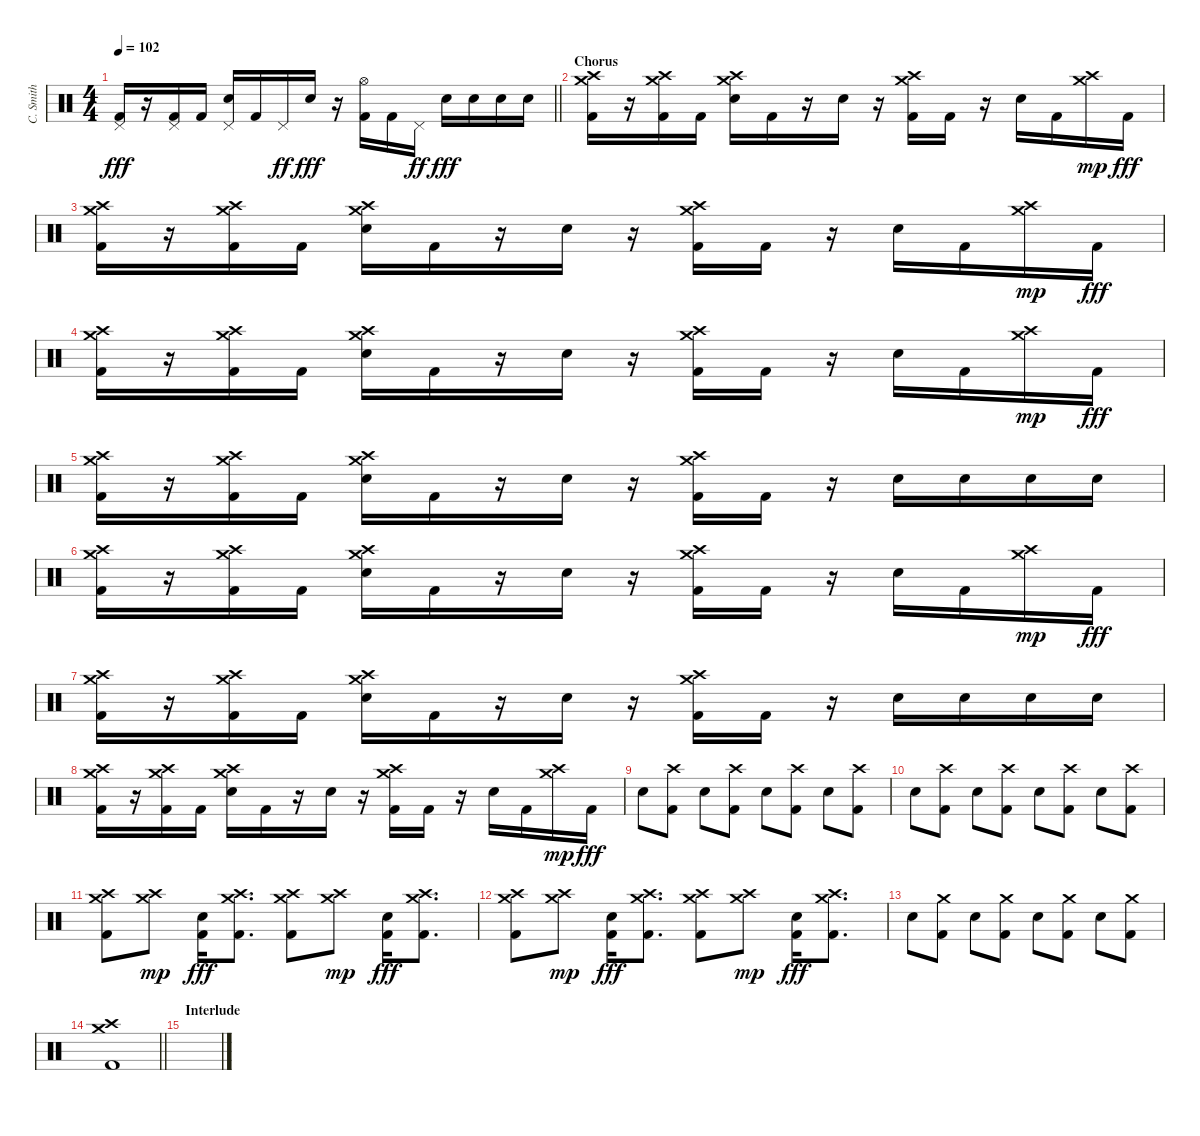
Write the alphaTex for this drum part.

\track ("C. Smith" "C. Smith") {instrument percussion}
\staff {score}
\articulation defaults
\ts (4 4)
\tempo 102
\clef neutral
\barLineRight lightlight
\ks c
("Pedal Hi-Hat (hit)" "Kick (hit) 2").16{dy fff} r.16 ("Pedal Hi-Hat (hit)" "Kick (hit) 2").16 "Kick (hit) 2".16 ("Pedal Hi-Hat (hit)" "Snare (hit) 2").16 "Kick (hit) 2".16 "Pedal Hi-Hat (hit)".16{dy ff} "Snare (hit) 2".16{dy fff} r.16 ("Hi-Hat (open)" "Kick (hit) 2").16 "Kick (hit) 2".16 "Pedal Hi-Hat (hit)".16{dy ff} "Snare (hit) 2".16{dy fff} "Snare (hit) 2".16 "Snare (hit) 2".16 "Snare (hit) 2".16 |
\section ("" "Chorus")
("Crash medium (hit)" "Crash high (hit)" "Kick (hit) 2").16{volume 11} r.16 ("Crash medium (hit)" "Crash high (hit)" "Kick (hit) 2").16 "Kick (hit) 2".16 ("Crash medium (hit)" "Crash high (hit)" "Snare (hit) 2").16 "Kick (hit) 2".16 r.16 "Snare (hit) 2".16 r.16 ("Crash medium (hit)" "Crash high (hit)" "Kick (hit) 2").16 "Kick (hit) 2".16 r.16 "Snare (hit) 2".16 "Kick (hit) 2".16 ("Crash medium (hit)" "Crash high (hit)").16{dy mp} "Kick (hit) 2".16{dy fff} |
("Crash medium (hit)" "Crash high (hit)" "Kick (hit) 2").16 r.16 ("Crash medium (hit)" "Crash high (hit)" "Kick (hit) 2").16 "Kick (hit) 2".16 ("Crash medium (hit)" "Crash high (hit)" "Snare (hit) 2").16 "Kick (hit) 2".16 r.16 "Snare (hit) 2".16 r.16 ("Crash medium (hit)" "Crash high (hit)" "Kick (hit) 2").16 "Kick (hit) 2".16 r.16 "Snare (hit) 2".16 "Kick (hit) 2".16 ("Crash medium (hit)" "Crash high (hit)").16{dy mp} "Kick (hit) 2".16{dy fff} |
("Crash medium (hit)" "Crash high (hit)" "Kick (hit) 2").16 r.16 ("Crash medium (hit)" "Crash high (hit)" "Kick (hit) 2").16 "Kick (hit) 2".16 ("Crash medium (hit)" "Crash high (hit)" "Snare (hit) 2").16 "Kick (hit) 2".16 r.16 "Snare (hit) 2".16 r.16 ("Crash medium (hit)" "Crash high (hit)" "Kick (hit) 2").16 "Kick (hit) 2".16 r.16 "Snare (hit) 2".16 "Kick (hit) 2".16 ("Crash medium (hit)" "Crash high (hit)").16{dy mp} "Kick (hit) 2".16{dy fff} |
("Crash medium (hit)" "Crash high (hit)" "Kick (hit) 2").16 r.16 ("Crash medium (hit)" "Crash high (hit)" "Kick (hit) 2").16 "Kick (hit) 2".16 ("Crash medium (hit)" "Crash high (hit)" "Snare (hit) 2").16 "Kick (hit) 2".16 r.16 "Snare (hit) 2".16 r.16 ("Crash medium (hit)" "Crash high (hit)" "Kick (hit) 2").16 "Kick (hit) 2".16 r.16 "Snare (hit) 2".16 "Snare (hit) 2".16 "Snare (hit) 2".16 "Snare (hit) 2".16 |
("Crash medium (hit)" "Crash high (hit)" "Kick (hit) 2").16 r.16 ("Crash medium (hit)" "Crash high (hit)" "Kick (hit) 2").16 "Kick (hit) 2".16 ("Crash medium (hit)" "Crash high (hit)" "Snare (hit) 2").16 "Kick (hit) 2".16 r.16 "Snare (hit) 2".16 r.16 ("Crash medium (hit)" "Crash high (hit)" "Kick (hit) 2").16 "Kick (hit) 2".16 r.16 "Snare (hit) 2".16 "Kick (hit) 2".16 ("Crash medium (hit)" "Crash high (hit)").16{dy mp} "Kick (hit) 2".16{dy fff} |
("Crash medium (hit)" "Crash high (hit)" "Kick (hit) 2").16 r.16 ("Crash medium (hit)" "Crash high (hit)" "Kick (hit) 2").16 "Kick (hit) 2".16 ("Crash medium (hit)" "Crash high (hit)" "Snare (hit) 2").16 "Kick (hit) 2".16 r.16 "Snare (hit) 2".16 r.16 ("Crash medium (hit)" "Crash high (hit)" "Kick (hit) 2").16 "Kick (hit) 2".16 r.16 "Snare (hit) 2".16 "Snare (hit) 2".16 "Snare (hit) 2".16 "Snare (hit) 2".16 |
("Crash medium (hit)" "Crash high (hit)" "Kick (hit) 2").16 r.16 ("Crash medium (hit)" "Crash high (hit)" "Kick (hit) 2").16 "Kick (hit) 2".16 ("Crash medium (hit)" "Crash high (hit)" "Snare (hit) 2").16 "Kick (hit) 2".16 r.16 "Snare (hit) 2".16 r.16 ("Crash medium (hit)" "Crash high (hit)" "Kick (hit) 2").16 "Kick (hit) 2".16 r.16 "Snare (hit) 2".16 "Kick (hit) 2".16 ("Crash medium (hit)" "Crash high (hit)").16{dy mp} "Kick (hit) 2".16{dy fff} |
"Snare (hit) 2".8 ("Crash high (hit)" "Kick (hit) 2").8 "Snare (hit) 2".8 ("Crash high (hit)" "Kick (hit) 2").8 "Snare (hit) 2".8 ("Crash high (hit)" "Kick (hit) 2").8 "Snare (hit) 2".8 ("Crash high (hit)" "Kick (hit) 2").8 |
"Snare (hit) 2".8 ("Crash high (hit)" "Kick (hit) 2").8 "Snare (hit) 2".8 ("Crash high (hit)" "Kick (hit) 2").8 "Snare (hit) 2".8 ("Crash high (hit)" "Kick (hit) 2").8 "Snare (hit) 2".8 ("Crash high (hit)" "Kick (hit) 2").8 |
("Crash medium (hit)" "Crash high (hit)" "Kick (hit) 2").8 ("Crash medium (hit)" "Crash high (hit)").8{dy mp} ("Snare (hit) 2" "Kick (hit) 2").16{dy fff} ("Crash medium (hit)" "Crash high (hit)" "Kick (hit) 2").8{d} ("Crash medium (hit)" "Crash high (hit)" "Kick (hit) 2").8 ("Crash medium (hit)" "Crash high (hit)").8{dy mp} ("Snare (hit) 2" "Kick (hit) 2").16{dy fff} ("Crash medium (hit)" "Crash high (hit)" "Kick (hit) 2").8{d} |
("Crash medium (hit)" "Crash high (hit)" "Kick (hit) 2").8 ("Crash medium (hit)" "Crash high (hit)").8{dy mp} ("Snare (hit) 2" "Kick (hit) 2").16{dy fff} ("Crash medium (hit)" "Crash high (hit)" "Kick (hit) 2").8{d} ("Crash medium (hit)" "Crash high (hit)" "Kick (hit) 2").8 ("Crash medium (hit)" "Crash high (hit)").8{dy mp} ("Snare (hit) 2" "Kick (hit) 2").16{dy fff} ("Crash medium (hit)" "Crash high (hit)" "Kick (hit) 2").8{d} |
"Snare (hit) 2".8 ("Crash medium (hit)" "Kick (hit) 2").8 "Snare (hit) 2".8 ("Crash medium (hit)" "Kick (hit) 2").8 "Snare (hit) 2".8 ("Crash medium (hit)" "Kick (hit) 2").8 "Snare (hit) 2".8 ("Crash medium (hit)" "Kick (hit) 2").8 |
\barLineRight lightlight
("Crash medium (hit)" "Crash high (hit)" "Kick (hit) 2").1{volume 13} |
\section ("" "Interlude")
